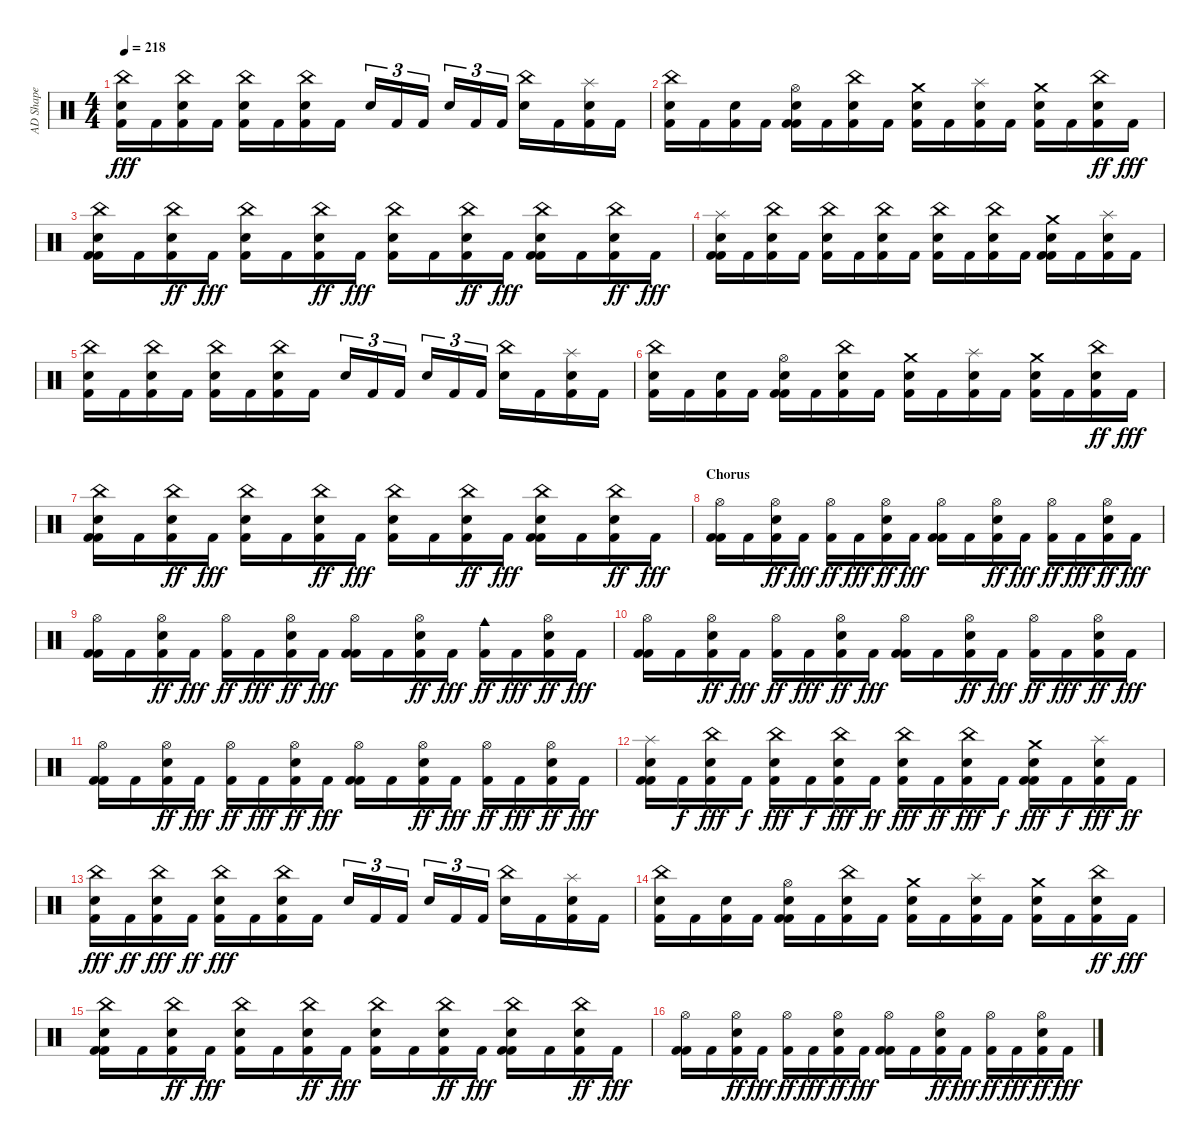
\track ("AD Shape" "AD Shape") {instrument percussion}
\staff {score}
\articulation defaults
\ts (4 4)
\tempo 218
\clef neutral
\ks c
("Kick (hit) 2" "Snare (hit) 2" "China (hit)").16{dy fff} "Kick (hit) 2".16 ("Kick (hit) 2" "Snare (hit) 2" "China (hit)").16 "Kick (hit) 2".16 ("Kick (hit) 2" "Snare (hit) 2" "China (hit)").16 "Kick (hit) 2".16 ("Kick (hit) 2" "Snare (hit) 2" "China (hit)").16 "Kick (hit) 2".16 "Snare (hit) 2".16{tu (3 2)} "Kick (hit) 2".16{tu (3 2)} "Kick (hit) 2".16{tu (3 2)} "Snare (hit) 2".16{tu (3 2)} "Kick (hit) 2".16{tu (3 2)} "Kick (hit) 2".16{tu (3 2)} ("Snare (hit) 2" "China (hit)").16 "Kick (hit) 2".16 ("Kick (hit) 2" "Snare (hit) 2" "Splash (hit)").16 "Kick (hit) 2".16 |
("Kick (hit) 2" "Snare (hit) 2" "China (hit)").16 "Kick (hit) 2".16 ("Kick (hit) 2" "Snare (hit) 2").16 "Kick (hit) 2".16 ("Kick (hit) 2" "Kick (hit) 2" "Snare (hit) 2" "Hi-Hat (open)").16 "Kick (hit) 2".16 ("Kick (hit) 2" "Snare (hit) 2" "China (hit)").16 "Kick (hit) 2".16 ("Kick (hit) 2" "Snare (hit) 2" "Crash medium (hit)").16 "Kick (hit) 2".16 ("Kick (hit) 2" "Snare (hit) 2" "Splash (hit)").16 "Kick (hit) 2".16 ("Kick (hit) 2" "Snare (hit) 2" "Crash medium (hit)").16 "Kick (hit) 2".16 ("Kick (hit) 2" "Snare (hit) 2" "China (hit)").16{dy ff} "Kick (hit) 2".16{dy fff} |
("Kick (hit) 2" "Kick (hit) 2" "Snare (hit) 2" "China (hit)").16 "Kick (hit) 2".16 ("Kick (hit) 2" "Snare (hit) 2" "China (hit)").16{dy ff} "Kick (hit) 2".16{dy fff} ("Kick (hit) 2" "Snare (hit) 2" "China (hit)").16 "Kick (hit) 2".16 ("Kick (hit) 2" "Snare (hit) 2" "China (hit)").16{dy ff} "Kick (hit) 2".16{dy fff} ("Kick (hit) 2" "Snare (hit) 2" "China (hit)").16 "Kick (hit) 2".16 ("Kick (hit) 2" "Snare (hit) 2" "China (hit)").16{dy ff} "Kick (hit) 2".16{dy fff} ("Kick (hit) 2" "Kick (hit) 2" "Snare (hit) 2" "China (hit)").16 "Kick (hit) 2".16 ("Kick (hit) 2" "Snare (hit) 2" "China (hit)").16{dy ff} "Kick (hit) 2".16{dy fff} |
("Kick (hit) 2" "Kick (hit) 2" "Snare (hit) 2" "Splash (hit)").16 "Kick (hit) 2".16 ("Kick (hit) 2" "Snare (hit) 2" "China (hit)").16 "Kick (hit) 2".16 ("Kick (hit) 2" "Snare (hit) 2" "China (hit)").16 "Kick (hit) 2".16 ("Kick (hit) 2" "Snare (hit) 2" "China (hit)").16 "Kick (hit) 2".16 ("Kick (hit) 2" "Snare (hit) 2" "China (hit)").16 "Kick (hit) 2".16 ("Kick (hit) 2" "Snare (hit) 2" "China (hit)").16 "Kick (hit) 2".16 ("Kick (hit) 2" "Kick (hit) 2" "Snare (hit) 2" "Crash medium (hit)").16 "Kick (hit) 2".16 ("Kick (hit) 2" "Snare (hit) 2" "Splash (hit)").16 "Kick (hit) 2".16 |
("Kick (hit) 2" "Snare (hit) 2" "China (hit)").16 "Kick (hit) 2".16 ("Kick (hit) 2" "Snare (hit) 2" "China (hit)").16 "Kick (hit) 2".16 ("Kick (hit) 2" "Snare (hit) 2" "China (hit)").16 "Kick (hit) 2".16 ("Kick (hit) 2" "Snare (hit) 2" "China (hit)").16 "Kick (hit) 2".16 "Snare (hit) 2".16{tu (3 2)} "Kick (hit) 2".16{tu (3 2)} "Kick (hit) 2".16{tu (3 2)} "Snare (hit) 2".16{tu (3 2)} "Kick (hit) 2".16{tu (3 2)} "Kick (hit) 2".16{tu (3 2)} ("Snare (hit) 2" "China (hit)").16 "Kick (hit) 2".16 ("Kick (hit) 2" "Snare (hit) 2" "Splash (hit)").16 "Kick (hit) 2".16 |
("Kick (hit) 2" "Snare (hit) 2" "China (hit)").16 "Kick (hit) 2".16 ("Kick (hit) 2" "Snare (hit) 2").16 "Kick (hit) 2".16 ("Kick (hit) 2" "Kick (hit) 2" "Snare (hit) 2" "Hi-Hat (open)").16 "Kick (hit) 2".16 ("Kick (hit) 2" "Snare (hit) 2" "China (hit)").16 "Kick (hit) 2".16 ("Kick (hit) 2" "Snare (hit) 2" "Crash medium (hit)").16 "Kick (hit) 2".16 ("Kick (hit) 2" "Snare (hit) 2" "Splash (hit)").16 "Kick (hit) 2".16 ("Kick (hit) 2" "Snare (hit) 2" "Crash medium (hit)").16 "Kick (hit) 2".16 ("Kick (hit) 2" "Snare (hit) 2" "China (hit)").16{dy ff} "Kick (hit) 2".16{dy fff} |
("Kick (hit) 2" "Kick (hit) 2" "Snare (hit) 2" "China (hit)").16 "Kick (hit) 2".16 ("Kick (hit) 2" "Snare (hit) 2" "China (hit)").16{dy ff} "Kick (hit) 2".16{dy fff} ("Kick (hit) 2" "Snare (hit) 2" "China (hit)").16 "Kick (hit) 2".16 ("Kick (hit) 2" "Snare (hit) 2" "China (hit)").16{dy ff} "Kick (hit) 2".16{dy fff} ("Kick (hit) 2" "Snare (hit) 2" "China (hit)").16 "Kick (hit) 2".16 ("Kick (hit) 2" "Snare (hit) 2" "China (hit)").16{dy ff} "Kick (hit) 2".16{dy fff} ("Kick (hit) 2" "Kick (hit) 2" "Snare (hit) 2" "China (hit)").16 "Kick (hit) 2".16 ("Kick (hit) 2" "Snare (hit) 2" "China (hit)").16{dy ff} "Kick (hit) 2".16{dy fff} |
\section ("" "Chorus")
("Kick (hit) 2" "Kick (hit) 2" "Hi-Hat (open)").16 "Kick (hit) 2".16 ("Kick (hit) 2" "Snare (hit) 2" "Hi-Hat (open)").16{dy ff} "Kick (hit) 2".16{dy fff} ("Kick (hit) 2" "Hi-Hat (open)").16{dy ff} "Kick (hit) 2".16{dy fff} ("Kick (hit) 2" "Snare (hit) 2" "Hi-Hat (open)").16{dy ff} "Kick (hit) 2".16{dy fff} ("Kick (hit) 2" "Kick (hit) 2" "Hi-Hat (open)").16 "Kick (hit) 2".16 ("Kick (hit) 2" "Snare (hit) 2" "Hi-Hat (open)").16{dy ff} "Kick (hit) 2".16{dy fff} ("Kick (hit) 2" "Hi-Hat (open)").16{dy ff} "Kick (hit) 2".16{dy fff} ("Kick (hit) 2" "Snare (hit) 2" "Hi-Hat (open)").16{dy ff} "Kick (hit) 2".16{dy fff} |
("Kick (hit) 2" "Kick (hit) 2" "Hi-Hat (open)").16 "Kick (hit) 2".16 ("Kick (hit) 2" "Snare (hit) 2" "Hi-Hat (open)").16{dy ff} "Kick (hit) 2".16{dy fff} ("Kick (hit) 2" "Hi-Hat (open)").16{dy ff} "Kick (hit) 2".16{dy fff} ("Kick (hit) 2" "Snare (hit) 2" "Hi-Hat (open)").16{dy ff} "Kick (hit) 2".16{dy fff} ("Kick (hit) 2" "Kick (hit) 2" "Hi-Hat (open)").16 "Kick (hit) 2".16 ("Kick (hit) 2" "Snare (hit) 2" "Hi-Hat (open)").16{dy ff} "Kick (hit) 2".16{dy fff} ("Kick (hit) 2" "Cowbell medium (hit)").16{dy ff} "Kick (hit) 2".16{dy fff} ("Kick (hit) 2" "Snare (hit) 2" "Hi-Hat (open)").16{dy ff} "Kick (hit) 2".16{dy fff} |
("Kick (hit) 2" "Kick (hit) 2" "Hi-Hat (open)").16 "Kick (hit) 2".16 ("Kick (hit) 2" "Snare (hit) 2" "Hi-Hat (open)").16{dy ff} "Kick (hit) 2".16{dy fff} ("Kick (hit) 2" "Hi-Hat (open)").16{dy ff} "Kick (hit) 2".16{dy fff} ("Kick (hit) 2" "Snare (hit) 2" "Hi-Hat (open)").16{dy ff} "Kick (hit) 2".16{dy fff} ("Kick (hit) 2" "Kick (hit) 2" "Hi-Hat (open)").16 "Kick (hit) 2".16 ("Kick (hit) 2" "Snare (hit) 2" "Hi-Hat (open)").16{dy ff} "Kick (hit) 2".16{dy fff} ("Kick (hit) 2" "Hi-Hat (open)").16{dy ff} "Kick (hit) 2".16{dy fff} ("Kick (hit) 2" "Snare (hit) 2" "Hi-Hat (open)").16{dy ff} "Kick (hit) 2".16{dy fff} |
("Kick (hit) 2" "Kick (hit) 2" "Hi-Hat (open)").16 "Kick (hit) 2".16 ("Kick (hit) 2" "Snare (hit) 2" "Hi-Hat (open)").16{dy ff} "Kick (hit) 2".16{dy fff} ("Kick (hit) 2" "Hi-Hat (open)").16{dy ff} "Kick (hit) 2".16{dy fff} ("Kick (hit) 2" "Snare (hit) 2" "Hi-Hat (open)").16{dy ff} "Kick (hit) 2".16{dy fff} ("Kick (hit) 2" "Kick (hit) 2" "Hi-Hat (open)").16 "Kick (hit) 2".16 ("Kick (hit) 2" "Snare (hit) 2" "Hi-Hat (open)").16{dy ff} "Kick (hit) 2".16{dy fff} ("Kick (hit) 2" "Hi-Hat (open)").16{dy ff} "Kick (hit) 2".16{dy fff} ("Kick (hit) 2" "Snare (hit) 2" "Hi-Hat (open)").16{dy ff} "Kick (hit) 2".16{dy fff} |
("Kick (hit) 2" "Kick (hit) 2" "Snare (hit) 2" "Splash (hit)").16 "Kick (hit) 2".16{dy f} ("Kick (hit) 2" "Snare (hit) 2" "China (hit)").16{dy fff} "Kick (hit) 2".16{dy f} ("Kick (hit) 2" "Snare (hit) 2" "China (hit)").16{dy fff} "Kick (hit) 2".16{dy f} ("Kick (hit) 2" "Snare (hit) 2" "China (hit)").16{dy fff} "Kick (hit) 2".16{dy ff} ("Kick (hit) 2" "Snare (hit) 2" "China (hit)").16{dy fff} "Kick (hit) 2".16{dy ff} ("Kick (hit) 2" "Snare (hit) 2" "China (hit)").16{dy fff} "Kick (hit) 2".16{dy f} ("Kick (hit) 2" "Kick (hit) 2" "Snare (hit) 2" "Crash medium (hit)").16{dy fff} "Kick (hit) 2".16{dy f} ("Kick (hit) 2" "Snare (hit) 2" "Splash (hit)").16{dy fff} "Kick (hit) 2".16{dy ff} |
("Kick (hit) 2" "Snare (hit) 2" "China (hit)").16{dy fff} "Kick (hit) 2".16{dy ff} ("Kick (hit) 2" "Snare (hit) 2" "China (hit)").16{dy fff} "Kick (hit) 2".16{dy ff} ("Kick (hit) 2" "Snare (hit) 2" "China (hit)").16{dy fff} "Kick (hit) 2".16 ("Kick (hit) 2" "Snare (hit) 2" "China (hit)").16 "Kick (hit) 2".16 "Snare (hit) 2".16{tu (3 2)} "Kick (hit) 2".16{tu (3 2)} "Kick (hit) 2".16{tu (3 2)} "Snare (hit) 2".16{tu (3 2)} "Kick (hit) 2".16{tu (3 2)} "Kick (hit) 2".16{tu (3 2)} ("Snare (hit) 2" "China (hit)").16 "Kick (hit) 2".16 ("Kick (hit) 2" "Snare (hit) 2" "Splash (hit)").16 "Kick (hit) 2".16 |
("Kick (hit) 2" "Snare (hit) 2" "China (hit)").16 "Kick (hit) 2".16 ("Kick (hit) 2" "Snare (hit) 2").16 "Kick (hit) 2".16 ("Kick (hit) 2" "Kick (hit) 2" "Snare (hit) 2" "Hi-Hat (open)").16 "Kick (hit) 2".16 ("Kick (hit) 2" "Snare (hit) 2" "China (hit)").16 "Kick (hit) 2".16 ("Kick (hit) 2" "Snare (hit) 2" "Crash medium (hit)").16 "Kick (hit) 2".16 ("Kick (hit) 2" "Snare (hit) 2" "Splash (hit)").16 "Kick (hit) 2".16 ("Kick (hit) 2" "Snare (hit) 2" "Crash medium (hit)").16 "Kick (hit) 2".16 ("Kick (hit) 2" "Snare (hit) 2" "China (hit)").16{dy ff} "Kick (hit) 2".16{dy fff} |
("Kick (hit) 2" "Kick (hit) 2" "Snare (hit) 2" "China (hit)").16 "Kick (hit) 2".16 ("Kick (hit) 2" "Snare (hit) 2" "China (hit)").16{dy ff} "Kick (hit) 2".16{dy fff} ("Kick (hit) 2" "Snare (hit) 2" "China (hit)").16 "Kick (hit) 2".16 ("Kick (hit) 2" "Snare (hit) 2" "China (hit)").16{dy ff} "Kick (hit) 2".16{dy fff} ("Kick (hit) 2" "Snare (hit) 2" "China (hit)").16 "Kick (hit) 2".16 ("Kick (hit) 2" "Snare (hit) 2" "China (hit)").16{dy ff} "Kick (hit) 2".16{dy fff} ("Kick (hit) 2" "Kick (hit) 2" "Snare (hit) 2" "China (hit)").16 "Kick (hit) 2".16 ("Kick (hit) 2" "Snare (hit) 2" "China (hit)").16{dy ff} "Kick (hit) 2".16{dy fff} |
("Kick (hit) 2" "Kick (hit) 2" "Hi-Hat (open)").16 "Kick (hit) 2".16 ("Kick (hit) 2" "Snare (hit) 2" "Hi-Hat (open)").16{dy ff} "Kick (hit) 2".16{dy fff} ("Kick (hit) 2" "Hi-Hat (open)").16{dy ff} "Kick (hit) 2".16{dy fff} ("Kick (hit) 2" "Snare (hit) 2" "Hi-Hat (open)").16{dy ff} "Kick (hit) 2".16{dy fff} ("Kick (hit) 2" "Kick (hit) 2" "Hi-Hat (open)").16 "Kick (hit) 2".16 ("Kick (hit) 2" "Snare (hit) 2" "Hi-Hat (open)").16{dy ff} "Kick (hit) 2".16{dy fff} ("Kick (hit) 2" "Hi-Hat (open)").16{dy ff} "Kick (hit) 2".16{dy fff} ("Kick (hit) 2" "Snare (hit) 2" "Hi-Hat (open)").16{dy ff} "Kick (hit) 2".16{dy fff}
